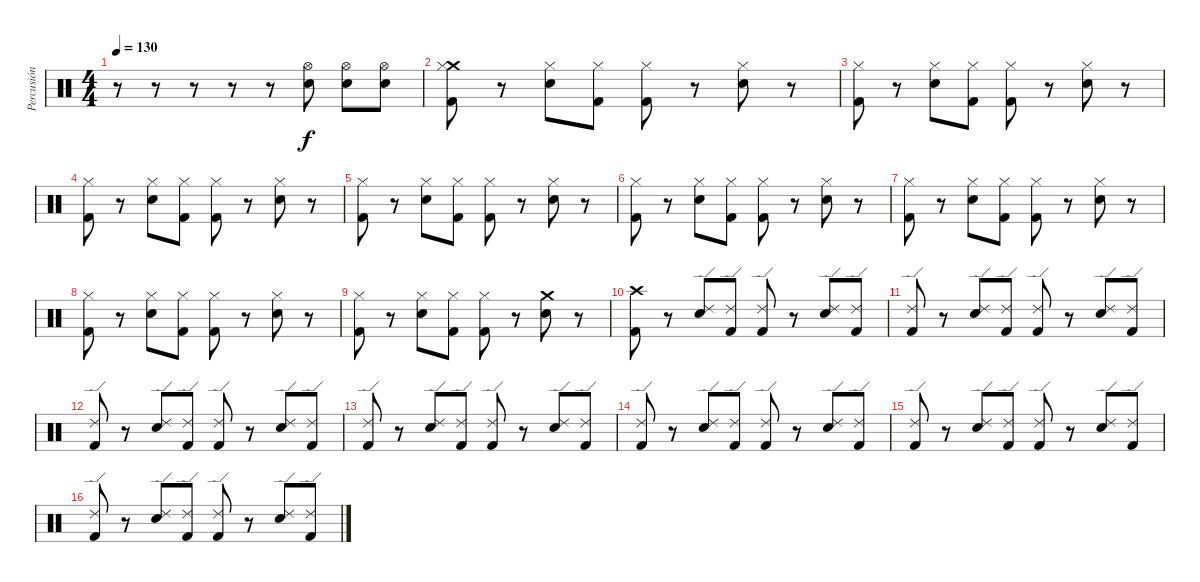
\track ("Percusión" "Percusión") {instrument percussion}
\staff {score}
\articulation defaults
\ts (4 4)
\tempo 130
\clef neutral
\ks c
r.8{dy f} r.8 r.8 r.8 r.8 ("Snare (hit) 2" "Hi-Hat (open)").8 ("Snare (hit) 2" "Hi-Hat (open)").8 ("Snare (hit) 2" "Hi-Hat (open)").8 |
("Kick (hit) 2" "Crash medium (hit)" "Hi-Hat (closed)").8 r.8 ("Snare (hit) 2" "Hi-Hat (closed)").8 ("Kick (hit) 2" "Hi-Hat (closed)").8 ("Kick (hit) 2" "Hi-Hat (closed)").8 r.8 ("Snare (hit) 2" "Hi-Hat (closed)").8 r.8 |
("Kick (hit) 2" "Hi-Hat (closed)").8 r.8 ("Snare (hit) 2" "Hi-Hat (closed)").8 ("Kick (hit) 2" "Hi-Hat (closed)").8 ("Kick (hit) 2" "Hi-Hat (closed)").8 r.8 ("Snare (hit) 2" "Hi-Hat (closed)").8 r.8 |
("Kick (hit) 2" "Hi-Hat (closed)").8 r.8 ("Snare (hit) 2" "Hi-Hat (closed)").8 ("Kick (hit) 2" "Hi-Hat (closed)").8 ("Kick (hit) 2" "Hi-Hat (closed)").8 r.8 ("Snare (hit) 2" "Hi-Hat (closed)").8 r.8 |
("Kick (hit) 2" "Hi-Hat (closed)").8 r.8 ("Snare (hit) 2" "Hi-Hat (closed)").8 ("Kick (hit) 2" "Hi-Hat (closed)").8 ("Kick (hit) 2" "Hi-Hat (closed)").8 r.8 ("Snare (hit) 2" "Hi-Hat (closed)").8 r.8 |
("Kick (hit) 2" "Hi-Hat (closed)").8 r.8 ("Snare (hit) 2" "Hi-Hat (closed)").8 ("Kick (hit) 2" "Hi-Hat (closed)").8 ("Kick (hit) 2" "Hi-Hat (closed)").8 r.8 ("Snare (hit) 2" "Hi-Hat (closed)").8 r.8 |
("Kick (hit) 2" "Hi-Hat (closed)").8 r.8 ("Snare (hit) 2" "Hi-Hat (closed)").8 ("Kick (hit) 2" "Hi-Hat (closed)").8 ("Kick (hit) 2" "Hi-Hat (closed)").8 r.8 ("Snare (hit) 2" "Hi-Hat (closed)").8 r.8 |
("Kick (hit) 2" "Hi-Hat (closed)").8 r.8 ("Snare (hit) 2" "Hi-Hat (closed)").8 ("Kick (hit) 2" "Hi-Hat (closed)").8 ("Kick (hit) 2" "Hi-Hat (closed)").8 r.8 ("Snare (hit) 2" "Hi-Hat (closed)").8 r.8 |
("Kick (hit) 2" "Hi-Hat (closed)").8 r.8 ("Snare (hit) 2" "Hi-Hat (closed)").8 ("Kick (hit) 2" "Hi-Hat (closed)").8 ("Kick (hit) 2" "Hi-Hat (closed)").8 r.8 ("Snare (hit) 2" "Crash medium (hit)").8 r.8 |
("Kick (hit) 2" "Crash high (hit)").8 r.8 ("Snare (hit) 2" "Ride (edge) 2").8 ("Kick (hit) 2" "Ride (edge) 2").8 ("Kick (hit) 2" "Ride (edge) 2").8 r.8 ("Snare (hit) 2" "Ride (edge) 2").8 ("Kick (hit) 2" "Ride (edge) 2").8 |
("Kick (hit) 2" "Ride (edge) 2").8 r.8 ("Snare (hit) 2" "Ride (edge) 2").8 ("Kick (hit) 2" "Ride (edge) 2").8 ("Kick (hit) 2" "Ride (edge) 2").8 r.8 ("Snare (hit) 2" "Ride (edge) 2").8 ("Kick (hit) 2" "Ride (edge) 2").8 |
("Kick (hit) 2" "Ride (edge) 2").8 r.8 ("Snare (hit) 2" "Ride (edge) 2").8 ("Kick (hit) 2" "Ride (edge) 2").8 ("Kick (hit) 2" "Ride (edge) 2").8 r.8 ("Snare (hit) 2" "Ride (edge) 2").8 ("Kick (hit) 2" "Ride (edge) 2").8 |
("Kick (hit) 2" "Ride (edge) 2").8 r.8 ("Snare (hit) 2" "Ride (edge) 2").8 ("Kick (hit) 2" "Ride (edge) 2").8 ("Kick (hit) 2" "Ride (edge) 2").8 r.8 ("Snare (hit) 2" "Ride (edge) 2").8 ("Kick (hit) 2" "Ride (edge) 2").8 |
("Kick (hit) 2" "Ride (edge) 2").8 r.8 ("Snare (hit) 2" "Ride (edge) 2").8 ("Kick (hit) 2" "Ride (edge) 2").8 ("Kick (hit) 2" "Ride (edge) 2").8 r.8 ("Snare (hit) 2" "Ride (edge) 2").8 ("Kick (hit) 2" "Ride (edge) 2").8 |
("Kick (hit) 2" "Ride (edge) 2").8 r.8 ("Snare (hit) 2" "Ride (edge) 2").8 ("Kick (hit) 2" "Ride (edge) 2").8 ("Kick (hit) 2" "Ride (edge) 2").8 r.8 ("Snare (hit) 2" "Ride (edge) 2").8 ("Kick (hit) 2" "Ride (edge) 2").8 |
("Kick (hit) 2" "Ride (edge) 2").8 r.8 ("Snare (hit) 2" "Ride (edge) 2").8 ("Kick (hit) 2" "Ride (edge) 2").8 ("Kick (hit) 2" "Ride (edge) 2").8 r.8 ("Snare (hit) 2" "Ride (edge) 2").8 ("Kick (hit) 2" "Ride (edge) 2").8
